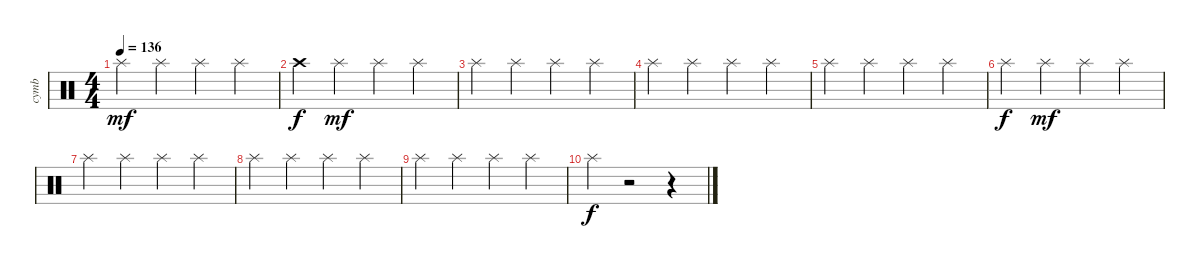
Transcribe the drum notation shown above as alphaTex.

\track ("cymb" "cymb") {instrument percussion}
\staff {score}
\articulation defaults
\ts (4 4)
\tempo 136
\clef neutral
\ks c "Splash (hit)".4{dy mf} "Splash (hit)".4 "Splash (hit)".4 "Splash (hit)".4
|
"Crash high (hit)".4{dy f} "Splash (hit)".4{dy mf} "Splash (hit)".4 "Splash (hit)".4 |
"Splash (hit)".4 "Splash (hit)".4 "Splash (hit)".4 "Splash (hit)".4 |
"Splash (hit)".4 "Splash (hit)".4 "Splash (hit)".4 "Splash (hit)".4 |
"Splash (hit)".4 "Splash (hit)".4 "Splash (hit)".4 "Splash (hit)".4 |
"Splash (hit)".4{dy f} "Splash (hit)".4{dy mf} "Splash (hit)".4 "Splash (hit)".4 |
"Splash (hit)".4 "Splash (hit)".4 "Splash (hit)".4 "Splash (hit)".4 |
"Splash (hit)".4 "Splash (hit)".4 "Splash (hit)".4 "Splash (hit)".4 |
"Splash (hit)".4 "Splash (hit)".4 "Splash (hit)".4 "Splash (hit)".4 |
"Splash (hit)".4{dy f} r.2 r.4
